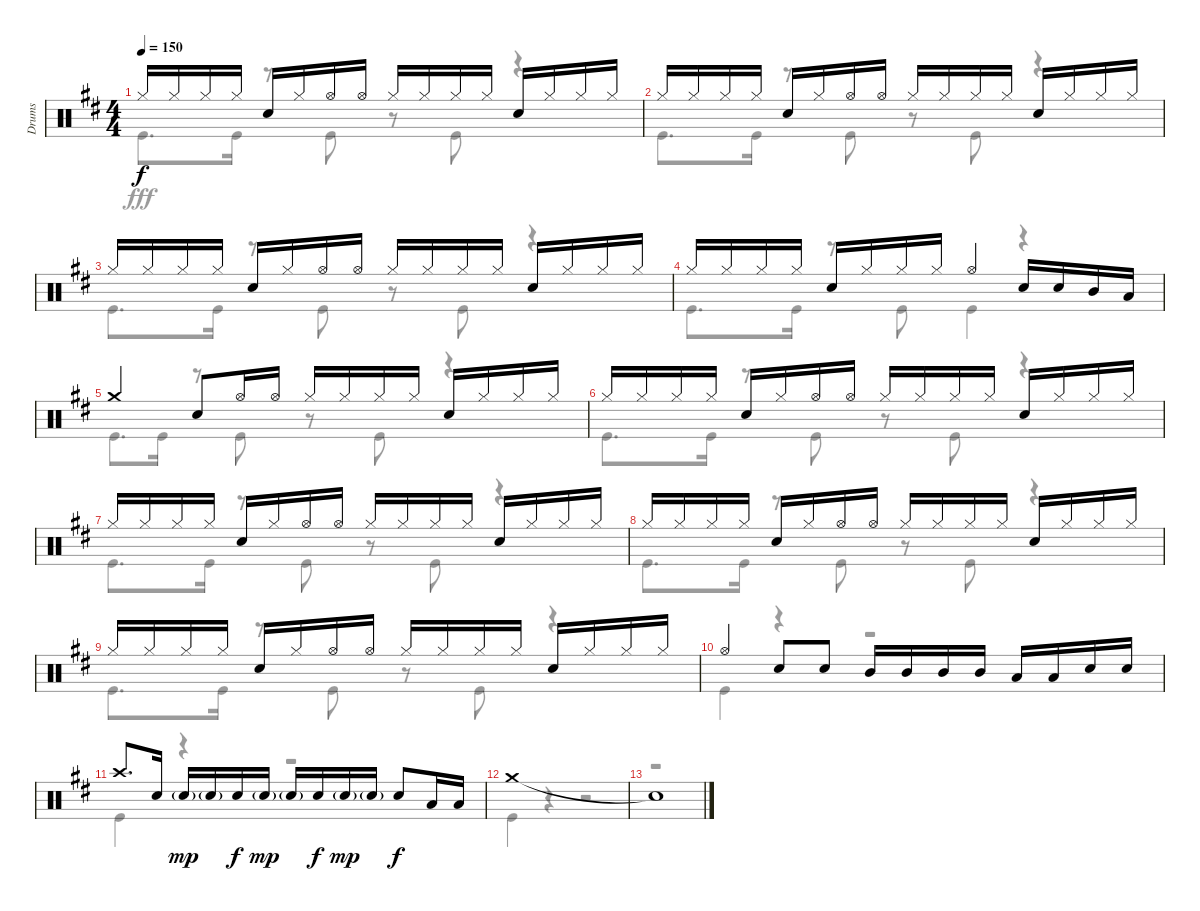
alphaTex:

\track ("Drums" "Drums") {instrument percussion}
\staff {score}
\articulation defaults
\voice
\ts (4 4)
\tempo 150
\clef neutral
\ks d "Hi-Hat (closed)".16{dy f} "Hi-Hat (closed)".16 "Hi-Hat (closed)".16 "Hi-Hat (closed)".16 "Snare (hit) 2".16 "Hi-Hat (closed)".16 "Hi-Hat (open)".16 "Hi-Hat (open)".16 "Hi-Hat (closed)".16 "Hi-Hat (closed)".16 "Hi-Hat (closed)".16 "Hi-Hat (closed)".16 "Snare (hit) 2".16 "Hi-Hat (closed)".16 "Hi-Hat (closed)".16 "Hi-Hat (closed)".16
|
"Hi-Hat (closed)".16 "Hi-Hat (closed)".16 "Hi-Hat (closed)".16 "Hi-Hat (closed)".16 "Snare (hit) 2".16 "Hi-Hat (closed)".16 "Hi-Hat (open)".16 "Hi-Hat (open)".16 "Hi-Hat (closed)".16 "Hi-Hat (closed)".16 "Hi-Hat (closed)".16 "Hi-Hat (closed)".16 "Snare (hit) 2".16 "Hi-Hat (closed)".16 "Hi-Hat (closed)".16 "Hi-Hat (closed)".16 |
"Hi-Hat (closed)".16 "Hi-Hat (closed)".16 "Hi-Hat (closed)".16 "Hi-Hat (closed)".16 "Snare (hit) 2".16 "Hi-Hat (closed)".16 "Hi-Hat (open)".16 "Hi-Hat (open)".16 "Hi-Hat (closed)".16 "Hi-Hat (closed)".16 "Hi-Hat (closed)".16 "Hi-Hat (closed)".16 "Snare (hit) 2".16 "Hi-Hat (closed)".16 "Hi-Hat (closed)".16 "Hi-Hat (closed)".16 |
"Hi-Hat (closed)".16 "Hi-Hat (closed)".16 "Hi-Hat (closed)".16 "Hi-Hat (closed)".16 "Snare (hit) 2".16 "Hi-Hat (closed)".16 "Hi-Hat (closed)".16 "Hi-Hat (closed)".16 "Hi-Hat (open)".4 "Snare (hit) 2".16 "Snare (hit) 2".16 "Mid Tom (hit)".16 "Low Tom (hit)".16 |
"Crash medium (hit)".4 "Snare (hit) 2".8 "Hi-Hat (open)".16 "Hi-Hat (open)".16 "Hi-Hat (closed)".16 "Hi-Hat (closed)".16 "Hi-Hat (closed)".16 "Hi-Hat (closed)".16 "Snare (hit) 2".16 "Hi-Hat (closed)".16 "Hi-Hat (closed)".16 "Hi-Hat (closed)".16 |
"Hi-Hat (closed)".16 "Hi-Hat (closed)".16 "Hi-Hat (closed)".16 "Hi-Hat (closed)".16 "Snare (hit) 2".16 "Hi-Hat (closed)".16 "Hi-Hat (open)".16 "Hi-Hat (open)".16 "Hi-Hat (closed)".16 "Hi-Hat (closed)".16 "Hi-Hat (closed)".16 "Hi-Hat (closed)".16 "Snare (hit) 2".16 "Hi-Hat (closed)".16 "Hi-Hat (closed)".16 "Hi-Hat (closed)".16 |
"Hi-Hat (closed)".16 "Hi-Hat (closed)".16 "Hi-Hat (closed)".16 "Hi-Hat (closed)".16 "Snare (hit) 2".16 "Hi-Hat (closed)".16 "Hi-Hat (open)".16 "Hi-Hat (open)".16 "Hi-Hat (closed)".16 "Hi-Hat (closed)".16 "Hi-Hat (closed)".16 "Hi-Hat (closed)".16 "Snare (hit) 2".16 "Hi-Hat (closed)".16 "Hi-Hat (closed)".16 "Hi-Hat (closed)".16 |
"Hi-Hat (closed)".16 "Hi-Hat (closed)".16 "Hi-Hat (closed)".16 "Hi-Hat (closed)".16 "Snare (hit) 2".16 "Hi-Hat (closed)".16 "Hi-Hat (open)".16 "Hi-Hat (open)".16 "Hi-Hat (closed)".16 "Hi-Hat (closed)".16 "Hi-Hat (closed)".16 "Hi-Hat (closed)".16 "Snare (hit) 2".16 "Hi-Hat (closed)".16 "Hi-Hat (closed)".16 "Hi-Hat (closed)".16 |
"Hi-Hat (closed)".16 "Hi-Hat (closed)".16 "Hi-Hat (closed)".16 "Hi-Hat (closed)".16 "Snare (hit) 2".16 "Hi-Hat (closed)".16 "Hi-Hat (open)".16 "Hi-Hat (open)".16 "Hi-Hat (closed)".16 "Hi-Hat (closed)".16 "Hi-Hat (closed)".16 "Hi-Hat (closed)".16 "Snare (hit) 2".16 "Hi-Hat (closed)".16 "Hi-Hat (closed)".16 "Hi-Hat (closed)".16 |
"Hi-Hat (open)".4 "Snare (hit) 2".8 "Snare (hit) 2".8 "Mid Tom (hit)".16 "Mid Tom (hit)".16 "Mid Tom (hit)".16 "Mid Tom (hit)".16 "Low Tom (hit)".16 "Low Tom (hit)".16 "Snare (hit) 2".16 "Snare (hit) 2".16 |
"Crash high (hit)".8{d} "Snare (hit) 2".16 "Snare (hit) 2"{g}.16{dy mp} "Snare (hit) 2"{g}.16 "Snare (hit) 2".16{dy f} "Snare (hit) 2"{g}.16{dy mp} "Snare (hit) 2"{g}.16 "Snare (hit) 2".16{dy f} "Snare (hit) 2"{g}.16{dy mp} "Snare (hit) 2"{g}.16 "Snare (hit) 2".8{dy f} "Low Tom (hit)".16 "Low Tom (hit)".16 |
"Crash medium (hit)".1 |
"Snare (hit)"{t}.1
\voice
\clef neutral
\ottava regular
\simile none
\ks d "Kick (hit)".8{d dy fff} "Kick (hit)".16
r.8 "Kick (hit)".8 r.8 "Kick (hit)".8 r.4 |
"Kick (hit)".8{d} "Kick (hit)".16 r.8 "Kick (hit)".8 r.8 "Kick (hit)".8 r.4 |
"Kick (hit)".8{d} "Kick (hit)".16 r.8 "Kick (hit)".8 r.8 "Kick (hit)".8 r.4 |
"Kick (hit)".8{d} "Kick (hit)".16 r.8 "Kick (hit)".8 "Kick (hit)".4 r.4 |
"Kick (hit)".8{d} "Kick (hit)".16 r.8 "Kick (hit)".8 r.8 "Kick (hit)".8 r.4 |
"Kick (hit)".8{d} "Kick (hit)".16 r.8 "Kick (hit)".8 r.8 "Kick (hit)".8 r.4 |
"Kick (hit)".8{d} "Kick (hit)".16 r.8 "Kick (hit)".8 r.8 "Kick (hit)".8 r.4 |
"Kick (hit)".8{d} "Kick (hit)".16 r.8 "Kick (hit)".8 r.8 "Kick (hit)".8 r.4 |
"Kick (hit)".8{d} "Kick (hit)".16 r.8 "Kick (hit)".8 r.8 "Kick (hit)".8 r.4 |
"Kick (hit)".4 r.4 r.2 |
"Kick (hit)".4 r.4 r.2 |
"Kick (hit)".4 r.4 r.2 |
r.1
